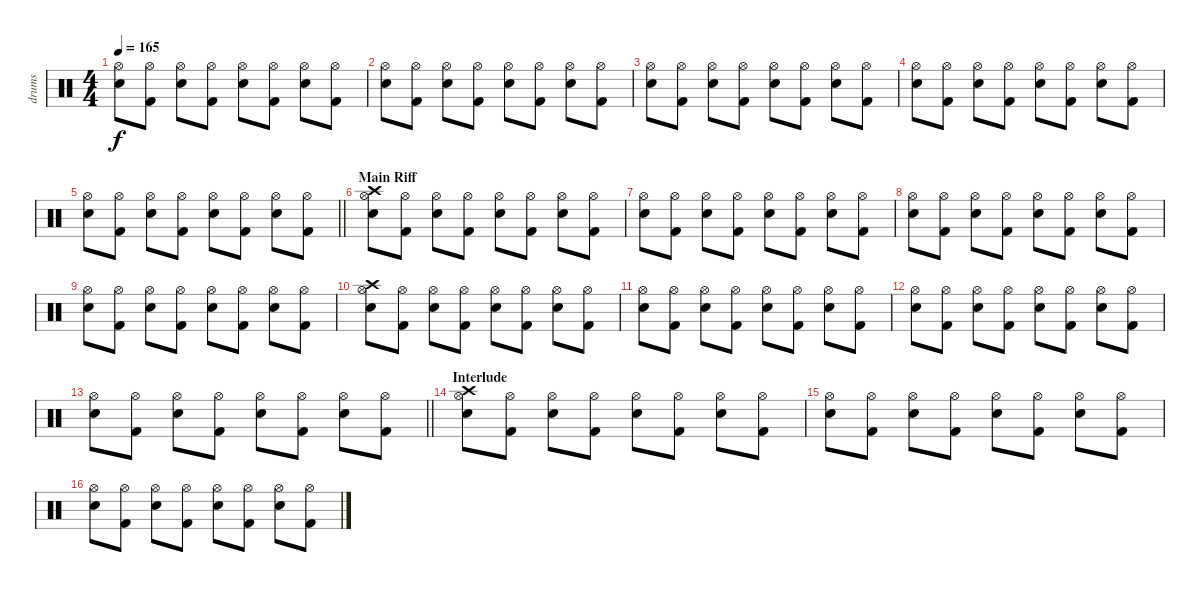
\track ("drums" "drums") {instrument percussion}
\staff {score}
\articulation defaults
\ts (4 4)
\tempo 165
\clef neutral
\ks c
("Hi-Hat (open)" "Electric Snare (hit)").8{dy f} ("Hi-Hat (open)" "Kick (hit) 2").8 ("Hi-Hat (open)" "Electric Snare (hit)").8 ("Hi-Hat (open)" "Kick (hit) 2").8 ("Hi-Hat (open)" "Electric Snare (hit)").8 ("Hi-Hat (open)" "Kick (hit) 2").8 ("Hi-Hat (open)" "Electric Snare (hit)").8 ("Hi-Hat (open)" "Kick (hit) 2").8 |
("Hi-Hat (open)" "Electric Snare (hit)").8 ("Hi-Hat (open)" "Kick (hit) 2").8 ("Hi-Hat (open)" "Electric Snare (hit)").8 ("Hi-Hat (open)" "Kick (hit) 2").8 ("Hi-Hat (open)" "Electric Snare (hit)").8 ("Hi-Hat (open)" "Kick (hit) 2").8 ("Hi-Hat (open)" "Electric Snare (hit)").8 ("Hi-Hat (open)" "Kick (hit) 2").8 |
("Hi-Hat (open)" "Electric Snare (hit)").8 ("Hi-Hat (open)" "Kick (hit) 2").8 ("Hi-Hat (open)" "Electric Snare (hit)").8 ("Hi-Hat (open)" "Kick (hit) 2").8 ("Hi-Hat (open)" "Electric Snare (hit)").8 ("Hi-Hat (open)" "Kick (hit) 2").8 ("Hi-Hat (open)" "Electric Snare (hit)").8 ("Hi-Hat (open)" "Kick (hit) 2").8 |
("Hi-Hat (open)" "Electric Snare (hit)").8 ("Hi-Hat (open)" "Kick (hit) 2").8 ("Hi-Hat (open)" "Electric Snare (hit)").8 ("Hi-Hat (open)" "Kick (hit) 2").8 ("Hi-Hat (open)" "Electric Snare (hit)").8 ("Hi-Hat (open)" "Kick (hit) 2").8 ("Hi-Hat (open)" "Electric Snare (hit)").8 ("Hi-Hat (open)" "Kick (hit) 2").8 |
\barLineRight lightlight
("Hi-Hat (open)" "Electric Snare (hit)").8 ("Hi-Hat (open)" "Kick (hit) 2").8 ("Hi-Hat (open)" "Electric Snare (hit)").8 ("Hi-Hat (open)" "Kick (hit) 2").8 ("Hi-Hat (open)" "Electric Snare (hit)").8 ("Hi-Hat (open)" "Kick (hit) 2").8 ("Hi-Hat (open)" "Electric Snare (hit)").8 ("Hi-Hat (open)" "Kick (hit) 2").8 |
\section ("" "Main Riff")
("Crash high (hit)" "Hi-Hat (open)" "Electric Snare (hit)").8 ("Hi-Hat (open)" "Kick (hit) 2").8 ("Hi-Hat (open)" "Electric Snare (hit)").8 ("Hi-Hat (open)" "Kick (hit) 2").8 ("Hi-Hat (open)" "Electric Snare (hit)").8 ("Hi-Hat (open)" "Kick (hit) 2").8 ("Hi-Hat (open)" "Electric Snare (hit)").8 ("Hi-Hat (open)" "Kick (hit) 2").8 |
("Hi-Hat (open)" "Electric Snare (hit)").8 ("Hi-Hat (open)" "Kick (hit) 2").8 ("Hi-Hat (open)" "Electric Snare (hit)").8 ("Hi-Hat (open)" "Kick (hit) 2").8 ("Hi-Hat (open)" "Electric Snare (hit)").8 ("Hi-Hat (open)" "Kick (hit) 2").8 ("Hi-Hat (open)" "Electric Snare (hit)").8 ("Hi-Hat (open)" "Kick (hit) 2").8 |
("Hi-Hat (open)" "Electric Snare (hit)").8 ("Hi-Hat (open)" "Kick (hit) 2").8 ("Hi-Hat (open)" "Electric Snare (hit)").8 ("Hi-Hat (open)" "Kick (hit) 2").8 ("Hi-Hat (open)" "Electric Snare (hit)").8 ("Hi-Hat (open)" "Kick (hit) 2").8 ("Hi-Hat (open)" "Electric Snare (hit)").8 ("Hi-Hat (open)" "Kick (hit) 2").8 |
("Hi-Hat (open)" "Electric Snare (hit)").8 ("Hi-Hat (open)" "Kick (hit) 2").8 ("Hi-Hat (open)" "Electric Snare (hit)").8 ("Hi-Hat (open)" "Kick (hit) 2").8 ("Hi-Hat (open)" "Electric Snare (hit)").8 ("Hi-Hat (open)" "Kick (hit) 2").8 ("Hi-Hat (open)" "Electric Snare (hit)").8 ("Hi-Hat (open)" "Kick (hit) 2").8 |
("Crash high (hit)" "Hi-Hat (open)" "Electric Snare (hit)").8 ("Hi-Hat (open)" "Kick (hit) 2").8 ("Hi-Hat (open)" "Electric Snare (hit)").8 ("Hi-Hat (open)" "Kick (hit) 2").8 ("Hi-Hat (open)" "Electric Snare (hit)").8 ("Hi-Hat (open)" "Kick (hit) 2").8 ("Hi-Hat (open)" "Electric Snare (hit)").8 ("Hi-Hat (open)" "Kick (hit) 2").8 |
("Hi-Hat (open)" "Electric Snare (hit)").8 ("Hi-Hat (open)" "Kick (hit) 2").8 ("Hi-Hat (open)" "Electric Snare (hit)").8 ("Hi-Hat (open)" "Kick (hit) 2").8 ("Hi-Hat (open)" "Electric Snare (hit)").8 ("Hi-Hat (open)" "Kick (hit) 2").8 ("Hi-Hat (open)" "Electric Snare (hit)").8 ("Hi-Hat (open)" "Kick (hit) 2").8 |
("Hi-Hat (open)" "Electric Snare (hit)").8 ("Hi-Hat (open)" "Kick (hit) 2").8 ("Hi-Hat (open)" "Electric Snare (hit)").8 ("Hi-Hat (open)" "Kick (hit) 2").8 ("Hi-Hat (open)" "Electric Snare (hit)").8 ("Hi-Hat (open)" "Kick (hit) 2").8 ("Hi-Hat (open)" "Electric Snare (hit)").8 ("Hi-Hat (open)" "Kick (hit) 2").8 |
\barLineRight lightlight
("Hi-Hat (open)" "Electric Snare (hit)").8 ("Hi-Hat (open)" "Kick (hit) 2").8 ("Hi-Hat (open)" "Electric Snare (hit)").8 ("Hi-Hat (open)" "Kick (hit) 2").8 ("Hi-Hat (open)" "Electric Snare (hit)").8 ("Hi-Hat (open)" "Kick (hit) 2").8 ("Hi-Hat (open)" "Electric Snare (hit)").8 ("Hi-Hat (open)" "Kick (hit) 2").8 |
\section ("" "Interlude")
("Crash high (hit)" "Hi-Hat (open)" "Electric Snare (hit)").8 ("Hi-Hat (open)" "Kick (hit) 2").8 ("Hi-Hat (open)" "Electric Snare (hit)").8 ("Hi-Hat (open)" "Kick (hit) 2").8 ("Hi-Hat (open)" "Electric Snare (hit)").8 ("Hi-Hat (open)" "Kick (hit) 2").8 ("Hi-Hat (open)" "Electric Snare (hit)").8 ("Hi-Hat (open)" "Kick (hit) 2").8 |
("Hi-Hat (open)" "Electric Snare (hit)").8 ("Hi-Hat (open)" "Kick (hit) 2").8 ("Hi-Hat (open)" "Electric Snare (hit)").8 ("Hi-Hat (open)" "Kick (hit) 2").8 ("Hi-Hat (open)" "Electric Snare (hit)").8 ("Hi-Hat (open)" "Kick (hit) 2").8 ("Hi-Hat (open)" "Electric Snare (hit)").8 ("Hi-Hat (open)" "Kick (hit) 2").8 |
("Hi-Hat (open)" "Electric Snare (hit)").8 ("Hi-Hat (open)" "Kick (hit) 2").8 ("Hi-Hat (open)" "Electric Snare (hit)").8 ("Hi-Hat (open)" "Kick (hit) 2").8 ("Hi-Hat (open)" "Electric Snare (hit)").8 ("Hi-Hat (open)" "Kick (hit) 2").8 ("Hi-Hat (open)" "Electric Snare (hit)").8 ("Hi-Hat (open)" "Kick (hit) 2").8
